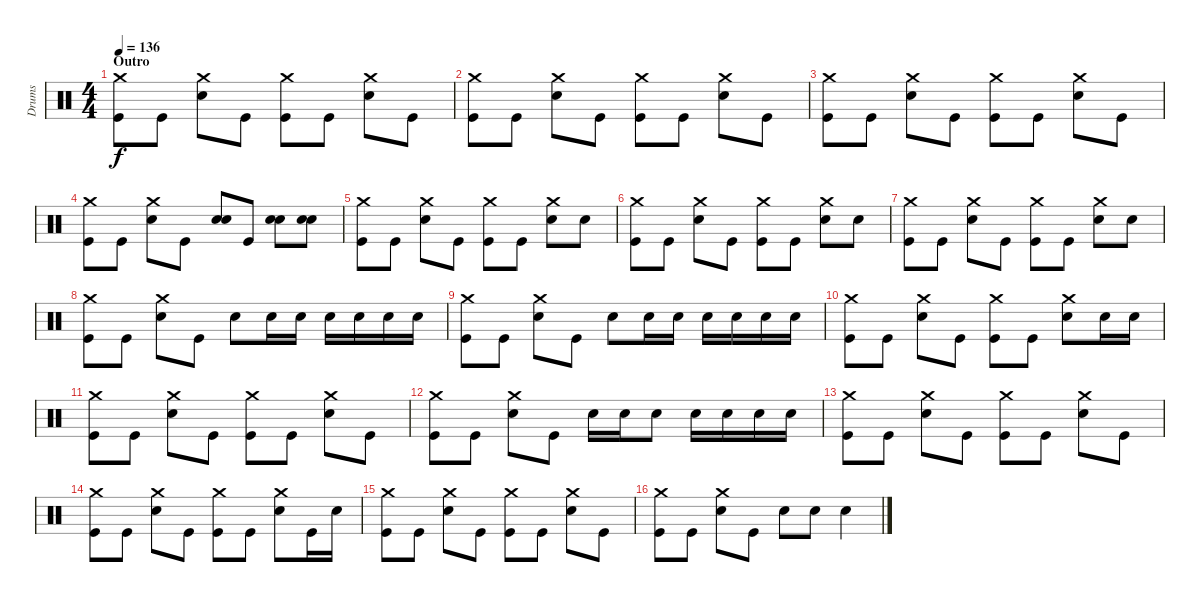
\track ("Drums" "Drums") {instrument percussion}
\staff {score}
\articulation defaults
\ts (4 4)
\section ("" "Outro")
\tempo 136
\clef neutral
\ks c
("Crash medium (hit)" "Kick (hit)").8{dy f} "Kick (hit)".8 ("Crash medium (hit)" "Snare (hit) 2").8 "Kick (hit)".8 ("Crash medium (hit)" "Kick (hit)").8 "Kick (hit)".8 ("Crash medium (hit)" "Snare (hit) 2").8 "Kick (hit)".8 |
("Crash medium (hit)" "Kick (hit)").8 "Kick (hit)".8 ("Crash medium (hit)" "Snare (hit) 2").8 "Kick (hit)".8 ("Crash medium (hit)" "Kick (hit)").8 "Kick (hit)".8 ("Crash medium (hit)" "Snare (hit) 2").8 "Kick (hit)".8 |
("Crash medium (hit)" "Kick (hit)").8 "Kick (hit)".8 ("Crash medium (hit)" "Snare (hit) 2").8 "Kick (hit)".8 ("Crash medium (hit)" "Kick (hit)").8 "Kick (hit)".8 ("Crash medium (hit)" "Snare (hit) 2").8 "Kick (hit)".8 |
("Crash medium (hit)" "Kick (hit)").8 "Kick (hit)".8 ("Crash medium (hit)" "Snare (hit) 2").8 "Kick (hit)".8 ("Snare (hit) 2" "Snare (hit) 2").8 "Kick (hit)".8 ("Snare (hit) 2" "Snare (hit) 2").8 ("Snare (hit) 2" "Snare (hit) 2").8 |
("Crash medium (hit)" "Kick (hit)").8 "Kick (hit)".8 ("Crash medium (hit)" "Snare (hit) 2").8 "Kick (hit)".8 ("Crash medium (hit)" "Kick (hit)").8 "Kick (hit)".8 ("Crash medium (hit)" "Snare (hit) 2").8 "Snare (hit) 2".8 |
("Crash medium (hit)" "Kick (hit)").8 "Kick (hit)".8 ("Crash medium (hit)" "Snare (hit) 2").8 "Kick (hit)".8 ("Crash medium (hit)" "Kick (hit)").8 "Kick (hit)".8 ("Crash medium (hit)" "Snare (hit) 2").8 "Snare (hit) 2".8 |
("Crash medium (hit)" "Kick (hit)").8 "Kick (hit)".8 ("Crash medium (hit)" "Snare (hit) 2").8 "Kick (hit)".8 ("Crash medium (hit)" "Kick (hit)").8 "Kick (hit)".8 ("Crash medium (hit)" "Snare (hit) 2").8 "Snare (hit) 2".8 |
("Crash medium (hit)" "Kick (hit)").8 "Kick (hit)".8 ("Crash medium (hit)" "Snare (hit) 2").8 "Kick (hit)".8 "Snare (hit) 2".8 "Snare (hit) 2".16 "Snare (hit) 2".16 "Snare (hit) 2".16 "Snare (hit) 2".16 "Snare (hit) 2".16 "Snare (hit) 2".16 |
("Crash medium (hit)" "Kick (hit)").8 "Kick (hit)".8 ("Crash medium (hit)" "Snare (hit) 2").8 "Kick (hit)".8 "Snare (hit) 2".8 "Snare (hit) 2".16 "Snare (hit) 2".16 "Snare (hit) 2".16 "Snare (hit) 2".16 "Snare (hit) 2".16 "Snare (hit) 2".16 |
("Crash medium (hit)" "Kick (hit)").8 "Kick (hit)".8 ("Crash medium (hit)" "Snare (hit) 2").8 "Kick (hit)".8 ("Crash medium (hit)" "Kick (hit)").8 "Kick (hit)".8 ("Crash medium (hit)" "Snare (hit) 2").8 "Snare (hit) 2".16 "Snare (hit) 2".16 |
("Crash medium (hit)" "Kick (hit)").8 "Kick (hit)".8 ("Crash medium (hit)" "Snare (hit) 2").8 "Kick (hit)".8 ("Crash medium (hit)" "Kick (hit)").8 "Kick (hit)".8 ("Crash medium (hit)" "Snare (hit) 2").8 "Kick (hit)".8 |
("Crash medium (hit)" "Kick (hit)").8 "Kick (hit)".8 ("Crash medium (hit)" "Snare (hit) 2").8 "Kick (hit)".8 "Snare (hit) 2".16 "Snare (hit) 2".16 "Snare (hit) 2".8 "Snare (hit) 2".16 "Snare (hit) 2".16 "Snare (hit) 2".16 "Snare (hit) 2".16 |
("Crash medium (hit)" "Kick (hit)").8 "Kick (hit)".8 ("Crash medium (hit)" "Snare (hit) 2").8 "Kick (hit)".8 ("Crash medium (hit)" "Kick (hit)").8 "Kick (hit)".8 ("Crash medium (hit)" "Snare (hit) 2").8 "Kick (hit)".8 |
("Crash medium (hit)" "Kick (hit)").8 "Kick (hit)".8 ("Crash medium (hit)" "Snare (hit) 2").8 "Kick (hit)".8 ("Crash medium (hit)" "Kick (hit)").8 "Kick (hit)".8 ("Crash medium (hit)" "Snare (hit) 2").8 "Kick (hit)".16 "Snare (hit) 2".16 |
("Crash medium (hit)" "Kick (hit)").8 "Kick (hit)".8 ("Crash medium (hit)" "Snare (hit) 2").8 "Kick (hit)".8 ("Crash medium (hit)" "Kick (hit)").8 "Kick (hit)".8 ("Crash medium (hit)" "Snare (hit) 2").8 "Kick (hit)".8 |
("Crash medium (hit)" "Kick (hit)").8 "Kick (hit)".8 ("Crash medium (hit)" "Snare (hit) 2").8 "Kick (hit)".8 "Snare (hit) 2".8 "Snare (hit) 2".8 "Snare (hit) 2".4
